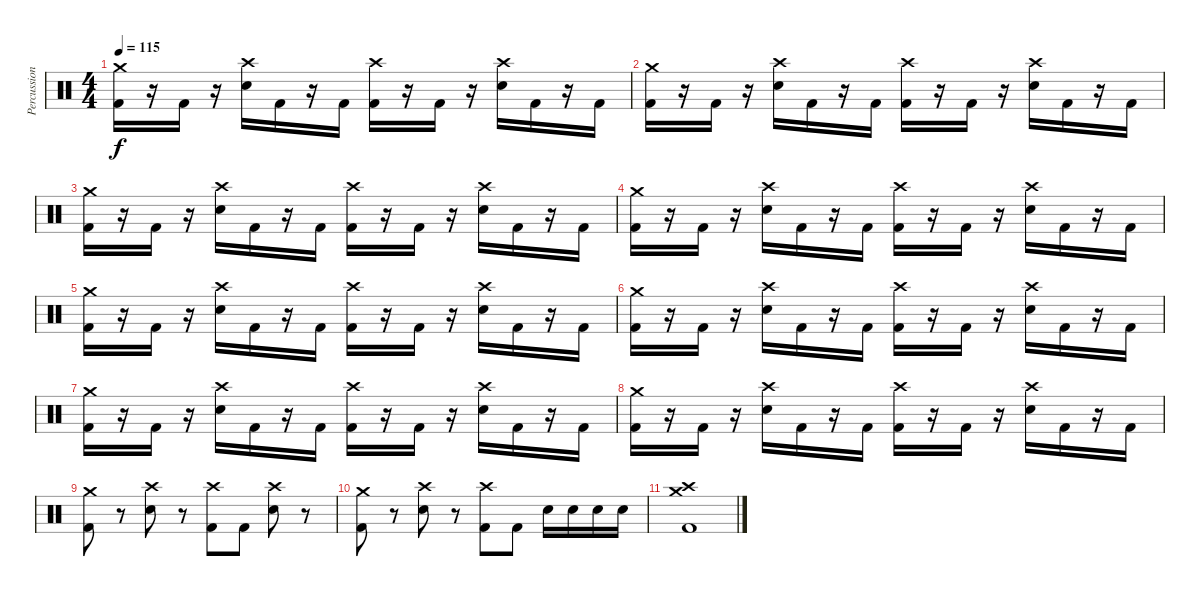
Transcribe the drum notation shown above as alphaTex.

\track ("Percussioni" "Percussion") {instrument percussion}
\staff {score}
\articulation defaults
\ts (4 4)
\tempo 115
\clef neutral
\ks c
("Crash medium (hit)" "Kick (hit) 2").16{dy f} r.16 "Kick (hit) 2".16 r.16 ("Crash high (hit)" "Electric Snare (hit)").16 "Kick (hit) 2".16 r.16 "Kick (hit) 2".16 ("Crash high (hit)" "Kick (hit) 2").16 r.16 "Kick (hit) 2".16 r.16 ("Crash high (hit)" "Electric Snare (hit)").16 "Kick (hit) 2".16 r.16 "Kick (hit) 2".16 |
("Crash medium (hit)" "Kick (hit) 2").16 r.16 "Kick (hit) 2".16 r.16 ("Crash high (hit)" "Electric Snare (hit)").16 "Kick (hit) 2".16 r.16 "Kick (hit) 2".16 ("Crash high (hit)" "Kick (hit) 2").16 r.16 "Kick (hit) 2".16 r.16 ("Crash high (hit)" "Electric Snare (hit)").16 "Kick (hit) 2".16 r.16 "Kick (hit) 2".16 |
("Crash medium (hit)" "Kick (hit) 2").16 r.16 "Kick (hit) 2".16 r.16 ("Crash high (hit)" "Electric Snare (hit)").16 "Kick (hit) 2".16 r.16 "Kick (hit) 2".16 ("Crash high (hit)" "Kick (hit) 2").16 r.16 "Kick (hit) 2".16 r.16 ("Crash high (hit)" "Electric Snare (hit)").16 "Kick (hit) 2".16 r.16 "Kick (hit) 2".16 |
("Crash medium (hit)" "Kick (hit) 2").16 r.16 "Kick (hit) 2".16 r.16 ("Crash high (hit)" "Electric Snare (hit)").16 "Kick (hit) 2".16 r.16 "Kick (hit) 2".16 ("Crash high (hit)" "Kick (hit) 2").16 r.16 "Kick (hit) 2".16 r.16 ("Crash high (hit)" "Electric Snare (hit)").16 "Kick (hit) 2".16 r.16 "Kick (hit) 2".16 |
("Crash medium (hit)" "Kick (hit) 2").16 r.16 "Kick (hit) 2".16 r.16 ("Crash high (hit)" "Electric Snare (hit)").16 "Kick (hit) 2".16 r.16 "Kick (hit) 2".16 ("Crash high (hit)" "Kick (hit) 2").16 r.16 "Kick (hit) 2".16 r.16 ("Crash high (hit)" "Electric Snare (hit)").16 "Kick (hit) 2".16 r.16 "Kick (hit) 2".16 |
("Crash medium (hit)" "Kick (hit) 2").16 r.16 "Kick (hit) 2".16 r.16 ("Crash high (hit)" "Electric Snare (hit)").16 "Kick (hit) 2".16 r.16 "Kick (hit) 2".16 ("Crash high (hit)" "Kick (hit) 2").16 r.16 "Kick (hit) 2".16 r.16 ("Crash high (hit)" "Electric Snare (hit)").16 "Kick (hit) 2".16 r.16 "Kick (hit) 2".16 |
("Crash medium (hit)" "Kick (hit) 2").16 r.16 "Kick (hit) 2".16 r.16 ("Crash high (hit)" "Electric Snare (hit)").16 "Kick (hit) 2".16 r.16 "Kick (hit) 2".16 ("Crash high (hit)" "Kick (hit) 2").16 r.16 "Kick (hit) 2".16 r.16 ("Crash high (hit)" "Electric Snare (hit)").16 "Kick (hit) 2".16 r.16 "Kick (hit) 2".16 |
("Crash medium (hit)" "Kick (hit) 2").16 r.16 "Kick (hit) 2".16 r.16 ("Crash high (hit)" "Electric Snare (hit)").16 "Kick (hit) 2".16 r.16 "Kick (hit) 2".16 ("Crash high (hit)" "Kick (hit) 2").16 r.16 "Kick (hit) 2".16 r.16 ("Crash high (hit)" "Electric Snare (hit)").16 "Kick (hit) 2".16 r.16 "Kick (hit) 2".16 |
("Crash medium (hit)" "Kick (hit) 2").8 r.8 ("Crash high (hit)" "Electric Snare (hit)").8 r.8 ("Crash high (hit)" "Kick (hit) 2").8 "Kick (hit) 2".8 ("Crash high (hit)" "Electric Snare (hit)").8 r.8 |
("Crash medium (hit)" "Kick (hit) 2").8 r.8 ("Crash high (hit)" "Electric Snare (hit)").8 r.8 ("Crash high (hit)" "Kick (hit) 2").8 "Kick (hit) 2".8 "Electric Snare (hit)".16 "Electric Snare (hit)".16 "Electric Snare (hit)".16 "Electric Snare (hit)".16 |
("Crash high (hit)" "Crash medium (hit)" "Kick (hit) 2").1
